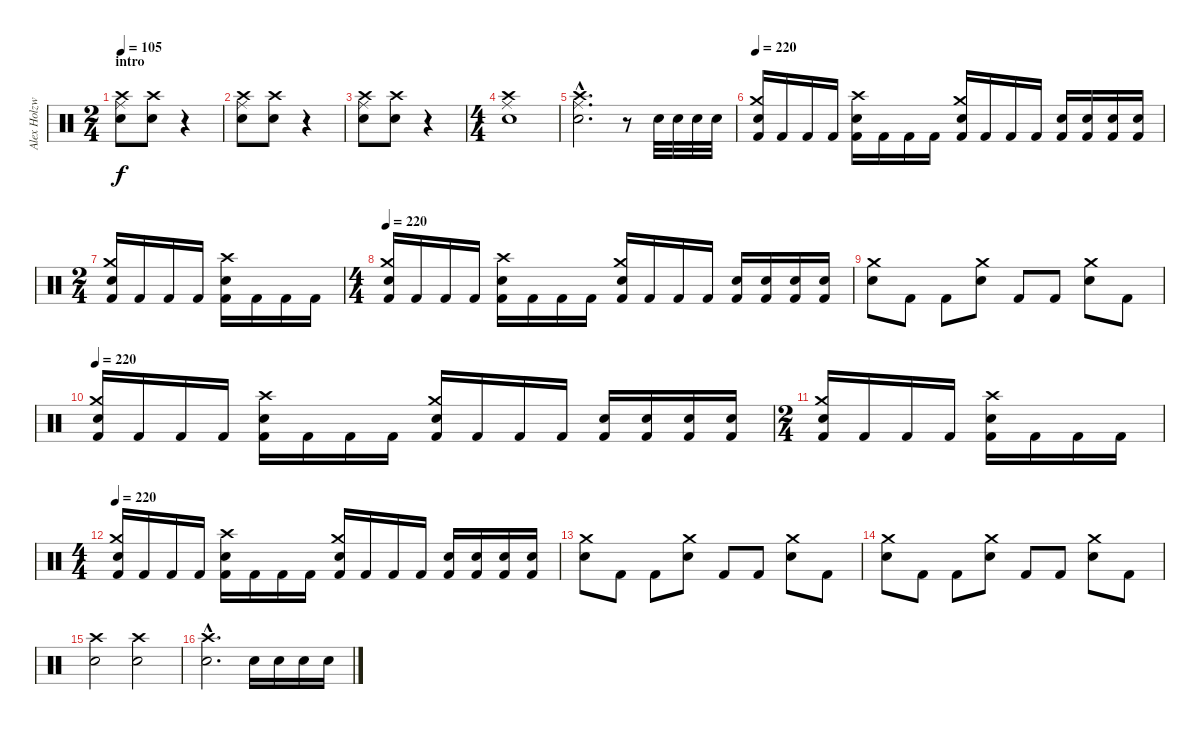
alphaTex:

\track ("Alex Holzwarth" "Alex Holzw") {instrument percussion}
\staff {score}
\articulation defaults
\ts (2 4)
\section ("" "intro")
\tempo 105
\clef neutral
\ks c
("Crash high (hit)" "Snare (hit) 2" "Ride (middle)").8{dy f} ("Crash high (hit)" "Snare (hit) 2").8 r.4 |
("Crash high (hit)" "Snare (hit) 2" "Ride (middle)").8 ("Crash high (hit)" "Snare (hit) 2").8 r.4 |
("Crash high (hit)" "Snare (hit) 2" "Ride (middle)").8 ("Crash high (hit)" "Snare (hit) 2").8 r.4 |
\ts (4 4)
("Crash high (hit)" "Ride (middle)" "Snare (hit) 2").1 |
("Crash high (hit)"{hac} "Ride (middle)"{hac} "Snare (hit) 2"{hac}).2{d} r.8 "Snare (hit) 2".32 "Snare (hit) 2".32 "Snare (hit) 2".32 "Snare (hit) 2".32 |
\tempo 220
("Crash medium (hit)" "Snare (hit) 2" "Kick (hit) 2").16 "Kick (hit) 2".16 "Kick (hit) 2".16 "Kick (hit) 2".16 ("Crash high (hit)" "Snare (hit) 2" "Kick (hit) 2").16 "Kick (hit) 2".16 "Kick (hit) 2".16 "Kick (hit) 2".16 ("Crash medium (hit)" "Snare (hit) 2" "Kick (hit) 2").16 "Kick (hit) 2".16 "Kick (hit) 2".16 "Kick (hit) 2".16 ("Snare (hit) 2" "Kick (hit) 2").16 ("Snare (hit) 2" "Kick (hit) 2").16 ("Snare (hit) 2" "Kick (hit) 2").16 ("Snare (hit) 2" "Kick (hit) 2").16 |
\ts (2 4)
("Crash medium (hit)" "Snare (hit) 2" "Kick (hit) 2").16 "Kick (hit) 2".16 "Kick (hit) 2".16 "Kick (hit) 2".16 ("Crash high (hit)" "Snare (hit) 2" "Kick (hit) 2").16 "Kick (hit) 2".16 "Kick (hit) 2".16 "Kick (hit) 2".16 |
\ts (4 4)
\tempo 220
("Crash medium (hit)" "Snare (hit) 2" "Kick (hit) 2").16 "Kick (hit) 2".16 "Kick (hit) 2".16 "Kick (hit) 2".16 ("Crash high (hit)" "Snare (hit) 2" "Kick (hit) 2").16 "Kick (hit) 2".16 "Kick (hit) 2".16 "Kick (hit) 2".16 ("Crash medium (hit)" "Snare (hit) 2" "Kick (hit) 2").16 "Kick (hit) 2".16 "Kick (hit) 2".16 "Kick (hit) 2".16 ("Snare (hit) 2" "Kick (hit) 2").16 ("Snare (hit) 2" "Kick (hit) 2").16 ("Snare (hit) 2" "Kick (hit) 2").16 ("Snare (hit) 2" "Kick (hit) 2").16 |
("Crash medium (hit)" "Snare (hit) 2").8 "Kick (hit) 2".8 "Kick (hit) 2".8 ("Crash medium (hit)" "Snare (hit) 2").8 "Kick (hit) 2".8 "Kick (hit) 2".8 ("Crash medium (hit)" "Snare (hit) 2").8 "Kick (hit) 2".8 |
\tempo 220
("Crash medium (hit)" "Snare (hit) 2" "Kick (hit) 2").16 "Kick (hit) 2".16 "Kick (hit) 2".16 "Kick (hit) 2".16 ("Crash high (hit)" "Snare (hit) 2" "Kick (hit) 2").16 "Kick (hit) 2".16 "Kick (hit) 2".16 "Kick (hit) 2".16 ("Crash medium (hit)" "Snare (hit) 2" "Kick (hit) 2").16 "Kick (hit) 2".16 "Kick (hit) 2".16 "Kick (hit) 2".16 ("Snare (hit) 2" "Kick (hit) 2").16 ("Snare (hit) 2" "Kick (hit) 2").16 ("Snare (hit) 2" "Kick (hit) 2").16 ("Snare (hit) 2" "Kick (hit) 2").16 |
\ts (2 4)
("Crash medium (hit)" "Snare (hit) 2" "Kick (hit) 2").16 "Kick (hit) 2".16 "Kick (hit) 2".16 "Kick (hit) 2".16 ("Crash high (hit)" "Snare (hit) 2" "Kick (hit) 2").16 "Kick (hit) 2".16 "Kick (hit) 2".16 "Kick (hit) 2".16 |
\ts (4 4)
\tempo 220
("Crash medium (hit)" "Snare (hit) 2" "Kick (hit) 2").16 "Kick (hit) 2".16 "Kick (hit) 2".16 "Kick (hit) 2".16 ("Crash high (hit)" "Snare (hit) 2" "Kick (hit) 2").16 "Kick (hit) 2".16 "Kick (hit) 2".16 "Kick (hit) 2".16 ("Crash medium (hit)" "Snare (hit) 2" "Kick (hit) 2").16 "Kick (hit) 2".16 "Kick (hit) 2".16 "Kick (hit) 2".16 ("Snare (hit) 2" "Kick (hit) 2").16 ("Snare (hit) 2" "Kick (hit) 2").16 ("Snare (hit) 2" "Kick (hit) 2").16 ("Snare (hit) 2" "Kick (hit) 2").16 |
("Crash medium (hit)" "Snare (hit) 2").8 "Kick (hit) 2".8 "Kick (hit) 2".8 ("Crash medium (hit)" "Snare (hit) 2").8 "Kick (hit) 2".8 "Kick (hit) 2".8 ("Crash medium (hit)" "Snare (hit) 2").8 "Kick (hit) 2".8 |
("Crash medium (hit)" "Snare (hit) 2").8 "Kick (hit) 2".8 "Kick (hit) 2".8 ("Crash medium (hit)" "Snare (hit) 2").8 "Kick (hit) 2".8 "Kick (hit) 2".8 ("Crash medium (hit)" "Snare (hit) 2").8 "Kick (hit) 2".8 |
("Crash high (hit)" "Snare (hit) 2").2 ("Crash high (hit)" "Snare (hit) 2").2 |
("Crash high (hit)"{hac} "Snare (hit) 2"{hac}).2{d} "Snare (hit) 2".16 "Snare (hit) 2".16 "Snare (hit) 2".16 "Snare (hit) 2".16
